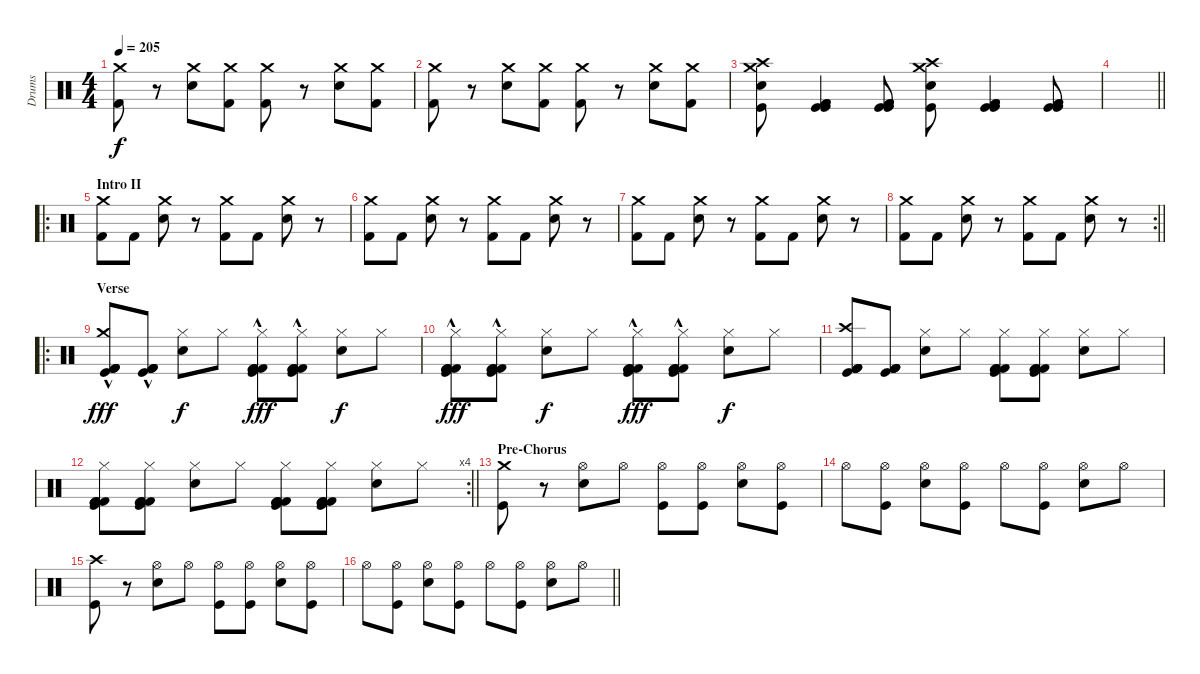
\track ("Drums" "Drums") {instrument percussion}
\staff {score}
\articulation defaults
\ts (4 4)
\tempo 205
\clef neutral
\ks c
("Kick (hit) 2" "Crash medium (hit)").8{dy f} r.8 ("Snare (hit) 2" "Crash medium (hit)").8 ("Kick (hit) 2" "Crash medium (hit)").8 ("Kick (hit) 2" "Crash medium (hit)").8 r.8 ("Snare (hit) 2" "Crash medium (hit)").8 ("Kick (hit) 2" "Crash medium (hit)").8 |
("Kick (hit) 2" "Crash medium (hit)").8 r.8 ("Snare (hit) 2" "Crash medium (hit)").8 ("Kick (hit) 2" "Crash medium (hit)").8 ("Kick (hit) 2" "Crash medium (hit)").8 r.8 ("Snare (hit) 2" "Crash medium (hit)").8 ("Kick (hit) 2" "Crash medium (hit)").8 |
("Crash medium (hit)" "Crash high (hit)" "Electric Snare (hit)" "Kick (hit)").8 ("Kick (hit)" "Kick (hit)" "Kick (hit) 2" "Kick (hit) 2").4 ("Kick (hit)" "Kick (hit)" "Kick (hit) 2" "Kick (hit) 2").8 ("Crash medium (hit)" "Crash high (hit)" "Electric Snare (hit)" "Kick (hit)").8 ("Kick (hit)" "Kick (hit)" "Kick (hit) 2" "Kick (hit) 2").4 ("Kick (hit)" "Kick (hit)" "Kick (hit) 2" "Kick (hit) 2").8 |
\barLineRight lightlight
|
\ro
\section ("" "Intro II")
("Crash medium (hit)" "Kick (hit) 2").8 "Kick (hit) 2".8 ("Crash medium (hit)" "Electric Snare (hit)").8 r.8 ("Crash medium (hit)" "Kick (hit) 2").8 "Kick (hit) 2".8 ("Crash medium (hit)" "Electric Snare (hit)").8 r.8 |
("Crash medium (hit)" "Kick (hit) 2").8 "Kick (hit) 2".8 ("Crash medium (hit)" "Electric Snare (hit)").8 r.8 ("Crash medium (hit)" "Kick (hit) 2").8 "Kick (hit) 2".8 ("Crash medium (hit)" "Electric Snare (hit)").8 r.8 |
("Crash medium (hit)" "Kick (hit) 2").8 "Kick (hit) 2".8 ("Crash medium (hit)" "Electric Snare (hit)").8 r.8 ("Crash medium (hit)" "Kick (hit) 2").8 "Kick (hit) 2".8 ("Crash medium (hit)" "Electric Snare (hit)").8 r.8 |
\rc 2
\barLineRight lightlight
("Crash medium (hit)" "Kick (hit) 2").8 "Kick (hit) 2".8 ("Crash medium (hit)" "Electric Snare (hit)").8 r.8 ("Crash medium (hit)" "Kick (hit) 2").8 "Kick (hit) 2".8 ("Crash medium (hit)" "Electric Snare (hit)").8 r.8 |
\ro
\section ("" "Verse")
("Kick (hit) 2" "Kick (hit) 2" "Crash medium (hit)" "Kick (hit) 2"{hac} "Kick (hit)"{hac}).8{dy fff} ("Kick (hit) 2" "Kick (hit) 2" "Kick (hit) 2"{hac} "Kick (hit)"{hac}).8 ("Hi-Hat (closed)" "Electric Snare (hit)").8{dy f} "Hi-Hat (closed)".8 ("Kick (hit) 2" "Kick (hit) 2" "Hi-Hat (closed)" "Kick (hit)"{hac} "Kick (hit) 2"{hac}).8{dy fff} ("Kick (hit) 2" "Kick (hit) 2" "Hi-Hat (closed)" "Kick (hit)"{hac} "Kick (hit) 2"{hac}).8 ("Hi-Hat (closed)" "Electric Snare (hit)").8{dy f} "Hi-Hat (closed)".8 |
("Kick (hit) 2" "Kick (hit) 2" "Hi-Hat (closed)" "Kick (hit)"{hac} "Kick (hit) 2"{hac}).8{dy fff} ("Kick (hit) 2" "Kick (hit) 2" "Hi-Hat (closed)" "Kick (hit)"{hac} "Kick (hit) 2"{hac}).8 ("Hi-Hat (closed)" "Electric Snare (hit)").8{dy f} "Hi-Hat (closed)".8 ("Kick (hit) 2" "Kick (hit) 2" "Hi-Hat (closed)" "Kick (hit)"{hac} "Kick (hit) 2"{hac}).8{dy fff} ("Kick (hit) 2" "Kick (hit) 2" "Hi-Hat (closed)" "Kick (hit)"{hac} "Kick (hit) 2"{hac}).8 ("Hi-Hat (closed)" "Electric Snare (hit)").8{dy f} "Hi-Hat (closed)".8 |
("Kick (hit) 2" "Kick (hit) 2" "Crash high (hit)" "Kick (hit) 2" "Kick (hit)").8 ("Kick (hit) 2" "Kick (hit) 2" "Kick (hit) 2" "Kick (hit)").8 ("Hi-Hat (closed)" "Electric Snare (hit)").8 "Hi-Hat (closed)".8 ("Kick (hit) 2" "Kick (hit) 2" "Hi-Hat (closed)" "Kick (hit) 2" "Kick (hit)").8 ("Kick (hit) 2" "Kick (hit) 2" "Hi-Hat (closed)" "Kick (hit) 2" "Kick (hit)").8 ("Hi-Hat (closed)" "Electric Snare (hit)").8 "Hi-Hat (closed)".8 |
\rc 4
\barLineRight lightlight
("Kick (hit) 2" "Kick (hit) 2" "Hi-Hat (closed)" "Kick (hit) 2" "Kick (hit)").8 ("Kick (hit) 2" "Kick (hit) 2" "Hi-Hat (closed)" "Kick (hit) 2" "Kick (hit)").8 ("Hi-Hat (closed)" "Electric Snare (hit)").8 "Hi-Hat (closed)".8 ("Kick (hit) 2" "Kick (hit) 2" "Hi-Hat (closed)" "Kick (hit) 2" "Kick (hit)").8 ("Kick (hit) 2" "Kick (hit) 2" "Hi-Hat (closed)" "Kick (hit) 2" "Kick (hit)").8 ("Hi-Hat (closed)" "Electric Snare (hit)").8 "Hi-Hat (closed)".8 |
\section ("" "Pre-Chorus")
("Crash medium (hit)" "Kick (hit)").8 r.8 ("Hi-Hat (open)" "Electric Snare (hit)").8 "Hi-Hat (open)".8 ("Hi-Hat (open)" "Kick (hit)").8 ("Hi-Hat (open)" "Kick (hit)").8 ("Hi-Hat (open)" "Electric Snare (hit)").8 ("Hi-Hat (open)" "Kick (hit)").8 |
"Hi-Hat (open)".8 ("Hi-Hat (open)" "Kick (hit)").8 ("Hi-Hat (open)" "Electric Snare (hit)").8 ("Hi-Hat (open)" "Kick (hit)").8 "Hi-Hat (open)".8 ("Hi-Hat (open)" "Kick (hit)").8 ("Hi-Hat (open)" "Electric Snare (hit)").8 "Hi-Hat (open)".8 |
("Crash high (hit)" "Kick (hit)").8 r.8 ("Hi-Hat (open)" "Electric Snare (hit)").8 "Hi-Hat (open)".8 ("Hi-Hat (open)" "Kick (hit)").8 ("Hi-Hat (open)" "Kick (hit)").8 ("Hi-Hat (open)" "Electric Snare (hit)").8 ("Hi-Hat (open)" "Kick (hit)").8 |
\barLineRight lightlight "Hi-Hat (open)".8
("Hi-Hat (open)" "Kick (hit)").8 ("Hi-Hat (open)" "Electric Snare (hit)").8 ("Hi-Hat (open)" "Kick (hit)").8 "Hi-Hat (open)".8 ("Hi-Hat (open)" "Kick (hit)").8 ("Hi-Hat (open)" "Electric Snare (hit)").8 "Hi-Hat (open)".8
